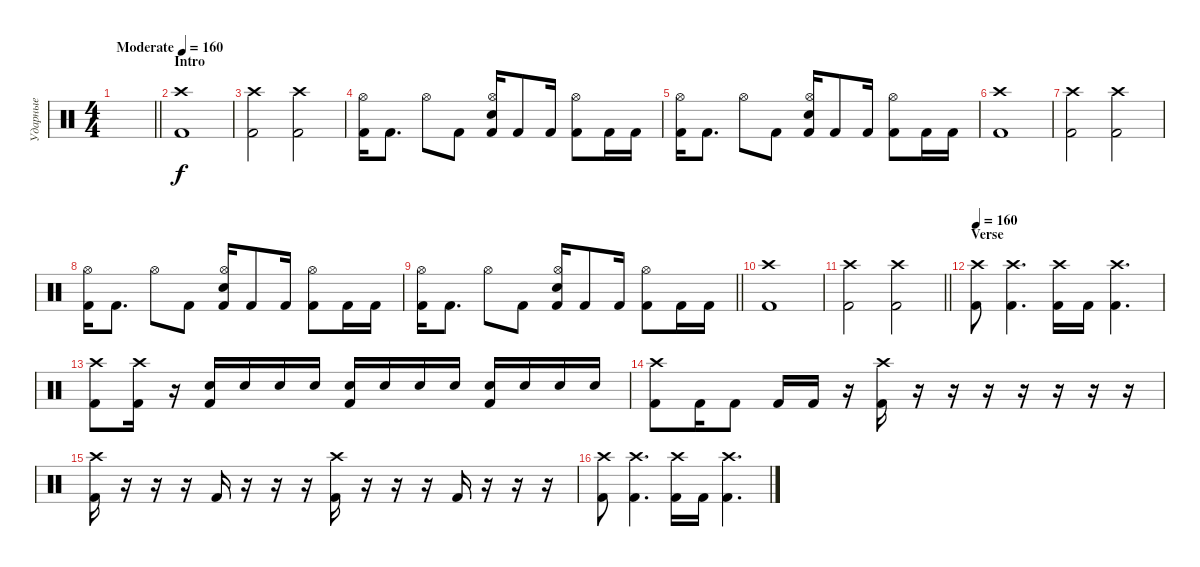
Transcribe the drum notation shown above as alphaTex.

\track ("Ударные" "Ударные") {instrument percussion}
\staff {score}
\articulation defaults
\ts (4 4)
\tempo (160 "Moderate")
\clef neutral
\barLineRight lightlight
\ks c
|
\section ("" "Intro")
("Crash high (hit)" "Kick (hit) 2").1 |
("Crash high (hit)" "Kick (hit) 2").2 ("Crash high (hit)" "Kick (hit) 2").2 |
("Hi-Hat (open)" "Kick (hit) 2").16 "Kick (hit) 2".8{d} "Hi-Hat (open)".8 "Kick (hit) 2".8 ("Hi-Hat (open)" "Electric Snare (hit)" "Kick (hit) 2").16 "Kick (hit) 2".8 "Kick (hit) 2".16 ("Hi-Hat (open)" "Kick (hit) 2").8 "Kick (hit) 2".16 "Kick (hit) 2".16 |
("Hi-Hat (open)" "Kick (hit) 2").16 "Kick (hit) 2".8{d} "Hi-Hat (open)".8 "Kick (hit) 2".8 ("Hi-Hat (open)" "Electric Snare (hit)" "Kick (hit) 2").16 "Kick (hit) 2".8 "Kick (hit) 2".16 ("Hi-Hat (open)" "Kick (hit) 2").8 "Kick (hit) 2".16 "Kick (hit) 2".16 |
("Crash high (hit)" "Kick (hit) 2").1 |
("Crash high (hit)" "Kick (hit) 2").2 ("Crash high (hit)" "Kick (hit) 2").2 |
("Hi-Hat (open)" "Kick (hit) 2").16 "Kick (hit) 2".8{d} "Hi-Hat (open)".8 "Kick (hit) 2".8 ("Hi-Hat (open)" "Electric Snare (hit)" "Kick (hit) 2").16 "Kick (hit) 2".8 "Kick (hit) 2".16 ("Hi-Hat (open)" "Kick (hit) 2").8 "Kick (hit) 2".16 "Kick (hit) 2".16 |
\barLineRight lightlight
("Hi-Hat (open)" "Kick (hit) 2").16 "Kick (hit) 2".8{d} "Hi-Hat (open)".8 "Kick (hit) 2".8 ("Hi-Hat (open)" "Electric Snare (hit)" "Kick (hit) 2").16 "Kick (hit) 2".8 "Kick (hit) 2".16 ("Hi-Hat (open)" "Kick (hit) 2").8 "Kick (hit) 2".16 "Kick (hit) 2".16 |
("Crash high (hit)" "Kick (hit) 2").1 |
\barLineRight lightlight
("Crash high (hit)" "Kick (hit) 2").2 ("Crash high (hit)" "Kick (hit) 2").2 |
\section ("" "Verse")
\tempo 160
("Crash high (hit)" "Kick (hit) 2").8 ("Crash high (hit)" "Kick (hit) 2").4{d} ("Crash high (hit)" "Kick (hit) 2").16 "Kick (hit) 2".16 ("Crash high (hit)" "Kick (hit) 2").4{d} |
("Crash high (hit)" "Kick (hit) 2").8 ("Crash high (hit)" "Kick (hit) 2").16 r.16 ("Electric Snare (hit)" "Kick (hit) 2").16 "Electric Snare (hit)".16 "Electric Snare (hit)".16 "Electric Snare (hit)".16 ("Electric Snare (hit)" "Kick (hit) 2").16 "Electric Snare (hit)".16 "Electric Snare (hit)".16 "Electric Snare (hit)".16 ("Electric Snare (hit)" "Kick (hit) 2").16 "Electric Snare (hit)".16 "Electric Snare (hit)".16 "Electric Snare (hit)".16 |
("Crash high (hit)" "Kick (hit) 2").8 "Kick (hit) 2".16 "Kick (hit) 2".8 "Kick (hit) 2".16 "Kick (hit) 2".16 r.16 ("Crash high (hit)" "Kick (hit) 2").16 r.16 r.16 r.16 r.16 r.16 r.16 r.16 |
("Crash high (hit)" "Kick (hit) 2").16 r.16 r.16 r.16 "Kick (hit) 2".16 r.16 r.16 r.16 ("Crash high (hit)" "Kick (hit) 2").16 r.16 r.16 r.16 "Kick (hit) 2".16 r.16 r.16 r.16 |
("Crash high (hit)" "Kick (hit) 2").8 ("Crash high (hit)" "Kick (hit) 2").4{d} ("Crash high (hit)" "Kick (hit) 2").16 "Kick (hit) 2".16 ("Crash high (hit)" "Kick (hit) 2").4{d}
